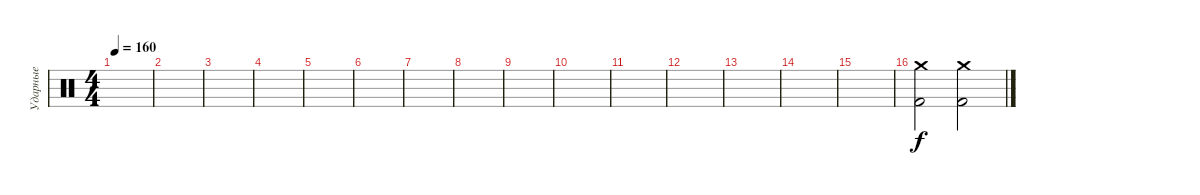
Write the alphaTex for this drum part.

\track ("Ударные" "Ударные") {instrument percussion}
\staff {score}
\articulation defaults
\ts (4 4)
\tempo 160
\clef neutral
\ks c
|
|
|
|
|
|
|
|
|
|
|
|
|
|
|
("Crash medium (hit)" "Kick (hit) 2").2 ("Crash medium (hit)" "Kick (hit) 2").2
